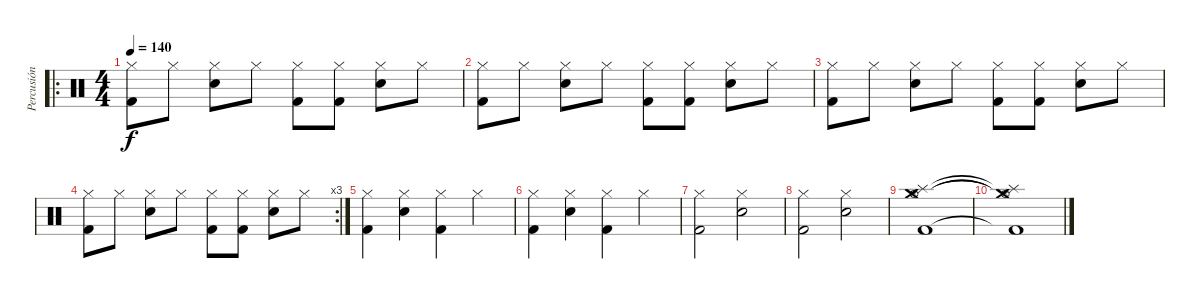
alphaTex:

\track ("Percusión" "Percusión") {instrument percussion}
\staff {score}
\articulation defaults
\ro
\ts (4 4)
\tempo 140
\clef neutral
\ks c
("Hi-Hat (closed)" "Kick (hit) 2").8{dy f} "Hi-Hat (closed)".8 ("Hi-Hat (closed)" "Snare (hit) 2").8 "Hi-Hat (closed)".8 ("Hi-Hat (closed)" "Kick (hit) 2").8 ("Hi-Hat (closed)" "Kick (hit) 2").8 ("Hi-Hat (closed)" "Snare (hit) 2").8 "Hi-Hat (closed)".8 |
("Hi-Hat (closed)" "Kick (hit) 2").8 "Hi-Hat (closed)".8 ("Hi-Hat (closed)" "Snare (hit) 2").8 "Hi-Hat (closed)".8 ("Hi-Hat (closed)" "Kick (hit) 2").8 ("Hi-Hat (closed)" "Kick (hit) 2").8 ("Hi-Hat (closed)" "Snare (hit) 2").8 "Hi-Hat (closed)".8 |
("Hi-Hat (closed)" "Kick (hit) 2").8 "Hi-Hat (closed)".8 ("Hi-Hat (closed)" "Snare (hit) 2").8 "Hi-Hat (closed)".8 ("Hi-Hat (closed)" "Kick (hit) 2").8 ("Hi-Hat (closed)" "Kick (hit) 2").8 ("Hi-Hat (closed)" "Snare (hit) 2").8 "Hi-Hat (closed)".8 |
\rc 3
("Hi-Hat (closed)" "Kick (hit) 2").8 "Hi-Hat (closed)".8 ("Hi-Hat (closed)" "Snare (hit) 2").8 "Hi-Hat (closed)".8 ("Hi-Hat (closed)" "Kick (hit) 2").8 ("Hi-Hat (closed)" "Kick (hit) 2").8 ("Hi-Hat (closed)" "Snare (hit) 2").8 "Hi-Hat (closed)".8 |
("Hi-Hat (closed)" "Kick (hit) 2").4 ("Hi-Hat (closed)" "Snare (hit) 2").4 ("Hi-Hat (closed)" "Kick (hit) 2").4 "Hi-Hat (closed)".4 |
("Hi-Hat (closed)" "Kick (hit) 2").4 ("Hi-Hat (closed)" "Snare (hit) 2").4 ("Hi-Hat (closed)" "Kick (hit) 2").4 "Hi-Hat (closed)".4 |
("Hi-Hat (closed)" "Kick (hit) 2").2 ("Hi-Hat (closed)" "Snare (hit) 2").2 |
("Hi-Hat (closed)" "Kick (hit) 2").2 ("Hi-Hat (closed)" "Snare (hit) 2").2 |
("Splash (hit)" "Crash medium (hit)" "Hi-Hat (open)" "Kick (hit) 2").1 |
("Splash (hit)"{t} "Crash medium (hit)"{t} "Hi-Hat (open)"{t} "Kick (hit) 2"{t}).1
